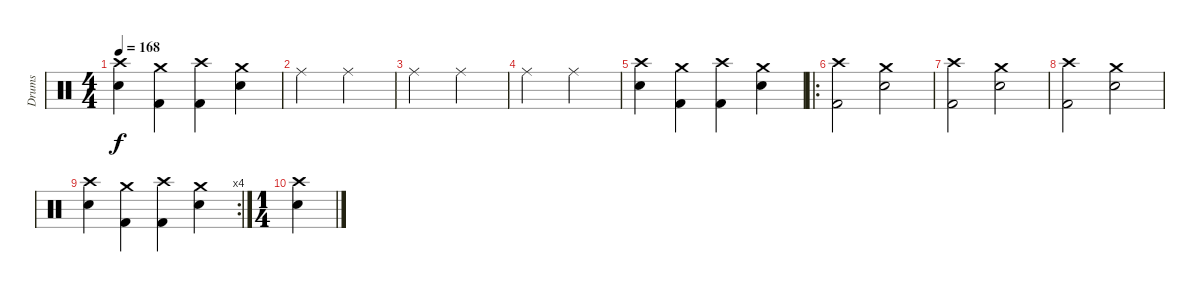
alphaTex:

\track ("Drums" "Drums") {instrument percussion}
\staff {score}
\articulation defaults
\ts (4 4)
\tempo 168
\clef neutral
\ks c
("Crash high (hit)" "Snare (hit) 2").4{dy f} ("Crash medium (hit)" "Kick (hit) 2").4 ("Crash high (hit)" "Kick (hit) 2").4 ("Crash medium (hit)" "Snare (hit) 2").4 |
"Ride (middle)".2 "Ride (middle)".2 |
"Ride (middle)".2 "Ride (middle)".2 |
"Ride (middle)".2 "Ride (middle)".2 |
("Crash high (hit)" "Snare (hit) 2").4 ("Crash medium (hit)" "Kick (hit) 2").4 ("Crash high (hit)" "Kick (hit) 2").4 ("Crash medium (hit)" "Snare (hit) 2").4 |
\ro
("Crash high (hit)" "Kick (hit) 2").2 ("Crash medium (hit)" "Snare (hit) 2").2 |
("Crash high (hit)" "Kick (hit) 2").2 ("Crash medium (hit)" "Snare (hit) 2").2 |
("Crash high (hit)" "Kick (hit) 2").2 ("Crash medium (hit)" "Snare (hit) 2").2 |
\rc 4
("Crash high (hit)" "Snare (hit) 2").4 ("Crash medium (hit)" "Kick (hit) 2").4 ("Crash high (hit)" "Kick (hit) 2").4 ("Crash medium (hit)" "Snare (hit) 2").4 |
\ts (1 4)
("Crash high (hit)" "Snare (hit) 2").4
